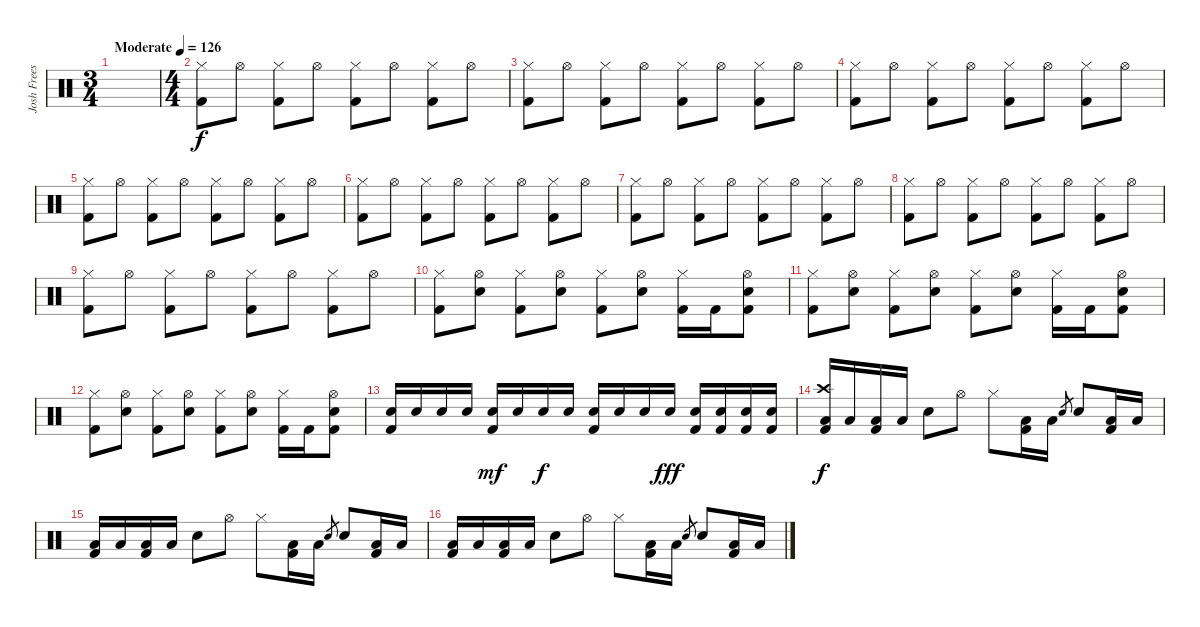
\track ("Josh Freese" "Josh Frees") {instrument percussion}
\staff {score}
\articulation defaults
\ts (3 4)
\tempo (126 "Moderate")
\clef neutral
\ks c
|
\ts (4 4)
("Hi-Hat (closed)" "Kick (hit) 2").8 "Hi-Hat (open)".8 ("Hi-Hat (closed)" "Kick (hit) 2").8 "Hi-Hat (open)".8 ("Hi-Hat (closed)" "Kick (hit) 2").8 "Hi-Hat (open)".8 ("Hi-Hat (closed)" "Kick (hit) 2").8 "Hi-Hat (open)".8 |
("Hi-Hat (closed)" "Kick (hit) 2").8 "Hi-Hat (open)".8 ("Hi-Hat (closed)" "Kick (hit) 2").8 "Hi-Hat (open)".8 ("Hi-Hat (closed)" "Kick (hit) 2").8 "Hi-Hat (open)".8 ("Hi-Hat (closed)" "Kick (hit) 2").8 "Hi-Hat (open)".8 |
("Hi-Hat (closed)" "Kick (hit) 2").8 "Hi-Hat (open)".8 ("Hi-Hat (closed)" "Kick (hit) 2").8 "Hi-Hat (open)".8 ("Hi-Hat (closed)" "Kick (hit) 2").8 "Hi-Hat (open)".8 ("Hi-Hat (closed)" "Kick (hit) 2").8 "Hi-Hat (open)".8 |
("Hi-Hat (closed)" "Kick (hit) 2").8 "Hi-Hat (open)".8 ("Hi-Hat (closed)" "Kick (hit) 2").8 "Hi-Hat (open)".8 ("Hi-Hat (closed)" "Kick (hit) 2").8 "Hi-Hat (open)".8 ("Hi-Hat (closed)" "Kick (hit) 2").8 "Hi-Hat (open)".8 |
("Hi-Hat (closed)" "Kick (hit) 2").8 "Hi-Hat (open)".8 ("Hi-Hat (closed)" "Kick (hit) 2").8 "Hi-Hat (open)".8 ("Hi-Hat (closed)" "Kick (hit) 2").8 "Hi-Hat (open)".8 ("Hi-Hat (closed)" "Kick (hit) 2").8 "Hi-Hat (open)".8 |
("Hi-Hat (closed)" "Kick (hit) 2").8 "Hi-Hat (open)".8 ("Hi-Hat (closed)" "Kick (hit) 2").8 "Hi-Hat (open)".8 ("Hi-Hat (closed)" "Kick (hit) 2").8 "Hi-Hat (open)".8 ("Hi-Hat (closed)" "Kick (hit) 2").8 "Hi-Hat (open)".8 |
("Hi-Hat (closed)" "Kick (hit) 2").8 "Hi-Hat (open)".8 ("Hi-Hat (closed)" "Kick (hit) 2").8 "Hi-Hat (open)".8 ("Hi-Hat (closed)" "Kick (hit) 2").8 "Hi-Hat (open)".8 ("Hi-Hat (closed)" "Kick (hit) 2").8 "Hi-Hat (open)".8 |
("Hi-Hat (closed)" "Kick (hit) 2").8 "Hi-Hat (open)".8 ("Hi-Hat (closed)" "Kick (hit) 2").8 "Hi-Hat (open)".8 ("Hi-Hat (closed)" "Kick (hit) 2").8 "Hi-Hat (open)".8 ("Hi-Hat (closed)" "Kick (hit) 2").8 "Hi-Hat (open)".8 |
("Hi-Hat (closed)" "Kick (hit) 2").8 ("Snare (hit) 2" "Hi-Hat (open)").8 ("Hi-Hat (closed)" "Kick (hit) 2").8 ("Snare (hit) 2" "Hi-Hat (open)").8 ("Hi-Hat (closed)" "Kick (hit) 2").8 ("Snare (hit) 2" "Hi-Hat (open)").8 ("Hi-Hat (closed)" "Kick (hit) 2").16 "Kick (hit) 2".16 ("Snare (hit) 2" "Hi-Hat (open)" "Kick (hit) 2").8 |
("Hi-Hat (closed)" "Kick (hit) 2").8 ("Snare (hit) 2" "Hi-Hat (open)").8 ("Hi-Hat (closed)" "Kick (hit) 2").8 ("Snare (hit) 2" "Hi-Hat (open)").8 ("Hi-Hat (closed)" "Kick (hit) 2").8 ("Snare (hit) 2" "Hi-Hat (open)").8 ("Hi-Hat (closed)" "Kick (hit) 2").16 "Kick (hit) 2".16 ("Snare (hit) 2" "Hi-Hat (open)" "Kick (hit) 2").8 |
("Hi-Hat (closed)" "Kick (hit) 2").8 ("Snare (hit) 2" "Hi-Hat (open)").8 ("Hi-Hat (closed)" "Kick (hit) 2").8 ("Snare (hit) 2" "Hi-Hat (open)").8 ("Hi-Hat (closed)" "Kick (hit) 2").8 ("Snare (hit) 2" "Hi-Hat (open)").8 ("Hi-Hat (closed)" "Kick (hit) 2").16 "Kick (hit) 2".16 ("Snare (hit) 2" "Hi-Hat (open)" "Kick (hit) 2").8 |
("Snare (hit) 2" "Kick (hit) 2").16 "Snare (hit) 2".16 "Snare (hit) 2".16 "Snare (hit) 2".16 ("Snare (hit) 2" "Kick (hit) 2").16{dy mf} "Snare (hit) 2".16 "Snare (hit) 2".16{dy f} "Snare (hit) 2".16 ("Snare (hit) 2" "Kick (hit) 2").16 "Snare (hit) 2".16 "Snare (hit) 2".16 "Snare (hit) 2".16{dy fff} ("Snare (hit) 2" "Kick (hit) 2").16 ("Snare (hit) 2" "Kick (hit) 2").16 ("Snare (hit) 2" "Kick (hit) 2").16 ("Snare (hit) 2" "Kick (hit) 2").16 |
("Crash high (hit)" "Low Floor Tom (hit)" "Kick (hit) 2").16{dy f} "Low Floor Tom (hit)".16 ("Low Floor Tom (hit)" "Kick (hit) 2").16 "Low Floor Tom (hit)".16 "Snare (hit) 2".8 "Hi-Hat (open)".8 "Hi-Hat (closed)".8 ("Low Floor Tom (hit)" "Kick (hit) 2").16 "Low Floor Tom (hit)".16 "Snare (hit) 2".8{gr} "Snare (hit) 2".8 ("Low Floor Tom (hit)" "Kick (hit) 2").16 "Low Floor Tom (hit)".16 |
("Low Floor Tom (hit)" "Kick (hit) 2").16 "Low Floor Tom (hit)".16 ("Low Floor Tom (hit)" "Kick (hit) 2").16 "Low Floor Tom (hit)".16 "Snare (hit) 2".8 "Hi-Hat (open)".8 "Hi-Hat (closed)".8 ("Low Floor Tom (hit)" "Kick (hit) 2").16 "Low Floor Tom (hit)".16 "Snare (hit) 2".8{gr} "Snare (hit) 2".8 ("Low Floor Tom (hit)" "Kick (hit) 2").16 "Low Floor Tom (hit)".16 |
("Low Floor Tom (hit)" "Kick (hit) 2").16 "Low Floor Tom (hit)".16 ("Low Floor Tom (hit)" "Kick (hit) 2").16 "Low Floor Tom (hit)".16 "Snare (hit) 2".8 "Hi-Hat (open)".8 "Hi-Hat (closed)".8 ("Low Floor Tom (hit)" "Kick (hit) 2").16 "Low Floor Tom (hit)".16 "Snare (hit) 2".8{gr} "Snare (hit) 2".8 ("Low Floor Tom (hit)" "Kick (hit) 2").16 "Low Floor Tom (hit)".16
